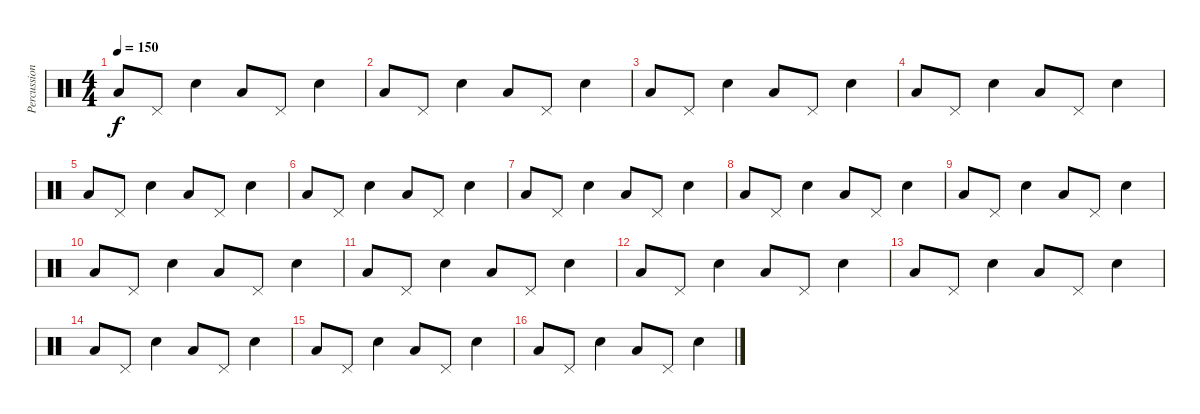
\track ("Percussions" "Percussion") {instrument percussion}
\staff {score}
\articulation defaults
\ts (4 4)
\tempo 150
\clef neutral
\ks c "Low Floor Tom (hit)".8{dy f} "Pedal Hi-Hat (hit)".8 "Snare (hit) 2".4 "Low Floor Tom (hit)".8 "Pedal Hi-Hat (hit)".8 "Snare (hit) 2".4
|
"Low Floor Tom (hit)".8 "Pedal Hi-Hat (hit)".8 "Snare (hit) 2".4 "Low Floor Tom (hit)".8 "Pedal Hi-Hat (hit)".8 "Snare (hit) 2".4 |
"Low Floor Tom (hit)".8 "Pedal Hi-Hat (hit)".8 "Snare (hit) 2".4 "Low Floor Tom (hit)".8 "Pedal Hi-Hat (hit)".8 "Snare (hit) 2".4 |
"Low Floor Tom (hit)".8 "Pedal Hi-Hat (hit)".8 "Snare (hit) 2".4 "Low Floor Tom (hit)".8 "Pedal Hi-Hat (hit)".8 "Snare (hit) 2".4 |
"Low Floor Tom (hit)".8 "Pedal Hi-Hat (hit)".8 "Snare (hit) 2".4 "Low Floor Tom (hit)".8 "Pedal Hi-Hat (hit)".8 "Snare (hit) 2".4 |
"Low Floor Tom (hit)".8 "Pedal Hi-Hat (hit)".8 "Snare (hit) 2".4 "Low Floor Tom (hit)".8 "Pedal Hi-Hat (hit)".8 "Snare (hit) 2".4 |
"Low Floor Tom (hit)".8 "Pedal Hi-Hat (hit)".8 "Snare (hit) 2".4 "Low Floor Tom (hit)".8 "Pedal Hi-Hat (hit)".8 "Snare (hit) 2".4 |
"Low Floor Tom (hit)".8 "Pedal Hi-Hat (hit)".8 "Snare (hit) 2".4 "Low Floor Tom (hit)".8 "Pedal Hi-Hat (hit)".8 "Snare (hit) 2".4 |
"Low Floor Tom (hit)".8 "Pedal Hi-Hat (hit)".8 "Snare (hit) 2".4 "Low Floor Tom (hit)".8 "Pedal Hi-Hat (hit)".8 "Snare (hit) 2".4 |
"Low Floor Tom (hit)".8 "Pedal Hi-Hat (hit)".8 "Snare (hit) 2".4 "Low Floor Tom (hit)".8 "Pedal Hi-Hat (hit)".8 "Snare (hit) 2".4 |
"Low Floor Tom (hit)".8 "Pedal Hi-Hat (hit)".8 "Snare (hit) 2".4 "Low Floor Tom (hit)".8 "Pedal Hi-Hat (hit)".8 "Snare (hit) 2".4 |
"Low Floor Tom (hit)".8 "Pedal Hi-Hat (hit)".8 "Snare (hit) 2".4 "Low Floor Tom (hit)".8 "Pedal Hi-Hat (hit)".8 "Snare (hit) 2".4 |
"Low Floor Tom (hit)".8 "Pedal Hi-Hat (hit)".8 "Snare (hit) 2".4 "Low Floor Tom (hit)".8 "Pedal Hi-Hat (hit)".8 "Snare (hit) 2".4 |
"Low Floor Tom (hit)".8 "Pedal Hi-Hat (hit)".8 "Snare (hit) 2".4 "Low Floor Tom (hit)".8 "Pedal Hi-Hat (hit)".8 "Snare (hit) 2".4 |
"Low Floor Tom (hit)".8 "Pedal Hi-Hat (hit)".8 "Snare (hit) 2".4 "Low Floor Tom (hit)".8 "Pedal Hi-Hat (hit)".8 "Snare (hit) 2".4 |
"Low Floor Tom (hit)".8 "Pedal Hi-Hat (hit)".8 "Snare (hit) 2".4 "Low Floor Tom (hit)".8 "Pedal Hi-Hat (hit)".8 "Snare (hit) 2".4
